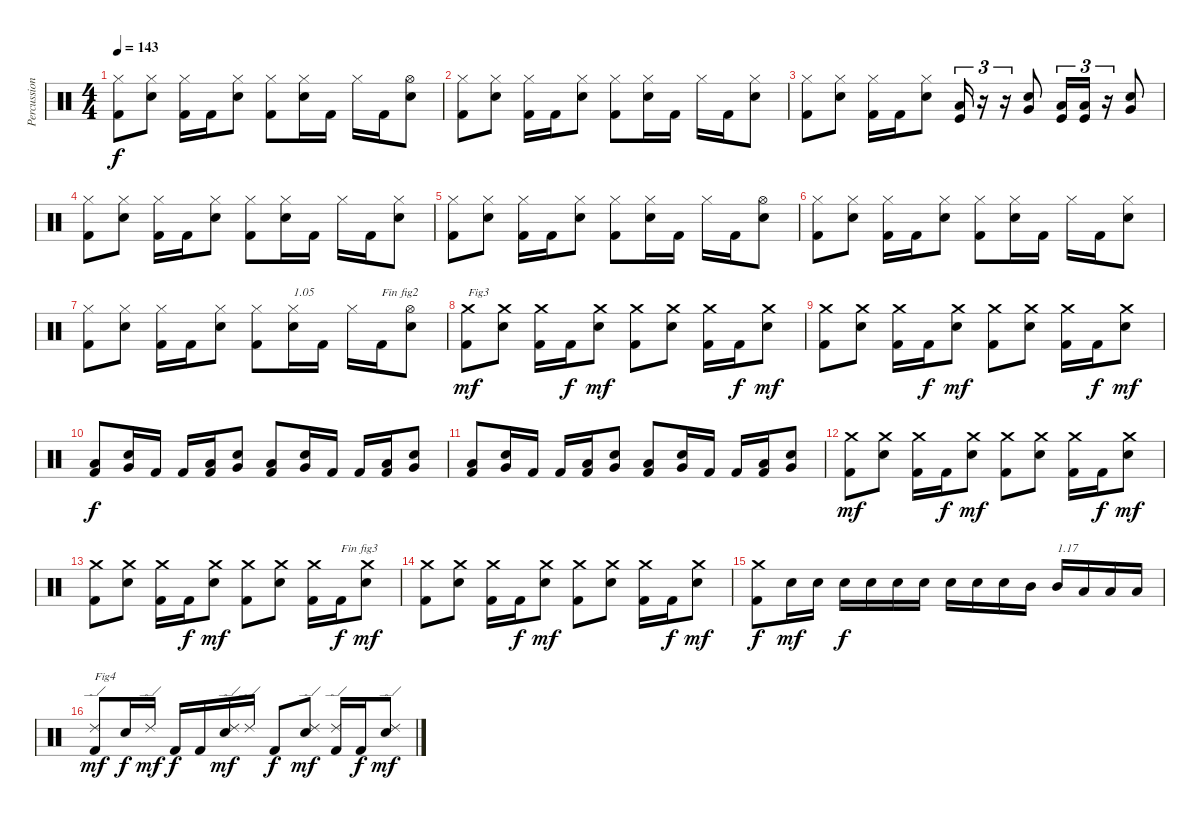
\track ("Percussions" "Percussion") {instrument percussion}
\staff {score}
\articulation defaults
\ts (4 4)
\tempo 143
\clef neutral
\ks c
("Kick (hit) 2" "Hi-Hat (closed)").8{dy f} ("Electric Snare (hit)" "Hi-Hat (closed)").8 ("Kick (hit) 2" "Hi-Hat (closed)").16 "Kick (hit) 2".16 ("Electric Snare (hit)" "Hi-Hat (closed)").8 ("Kick (hit) 2" "Hi-Hat (closed)").8 ("Electric Snare (hit)" "Hi-Hat (closed)").16 "Kick (hit) 2".16 "Hi-Hat (closed)".16 "Kick (hit) 2".16 ("Electric Snare (hit)" "Hi-Hat (open)").8 |
("Kick (hit) 2" "Hi-Hat (closed)").8 ("Electric Snare (hit)" "Hi-Hat (closed)").8 ("Kick (hit) 2" "Hi-Hat (closed)").16 "Kick (hit) 2".16 ("Electric Snare (hit)" "Hi-Hat (closed)").8 ("Kick (hit) 2" "Hi-Hat (closed)").8 ("Electric Snare (hit)" "Hi-Hat (closed)").16 "Kick (hit) 2".16 "Hi-Hat (closed)".16 "Kick (hit) 2".16 ("Electric Snare (hit)" "Hi-Hat (closed)").8 |
("Kick (hit) 2" "Hi-Hat (closed)").8 ("Electric Snare (hit)" "Hi-Hat (closed)").8 ("Kick (hit) 2" "Hi-Hat (closed)").16 "Kick (hit) 2".16 ("Electric Snare (hit)" "Hi-Hat (closed)").8 ("Kick (hit)" "Low Floor Tom (hit)").16{tu (3 2)} r.16{tu (3 2)} r.16{tu (3 2)} ("Electric Snare (hit)" "Very Low Tom (hit)").8 ("Kick (hit)" "Low Floor Tom (hit)").16{tu (3 2)} ("Kick (hit)" "Low Floor Tom (hit)").16{tu (3 2)} r.16{tu (3 2)} ("Electric Snare (hit)" "Very Low Tom (hit)").8 |
("Kick (hit) 2" "Hi-Hat (closed)").8 ("Electric Snare (hit)" "Hi-Hat (closed)").8 ("Kick (hit) 2" "Hi-Hat (closed)").16 "Kick (hit) 2".16 ("Electric Snare (hit)" "Hi-Hat (closed)").8 ("Kick (hit) 2" "Hi-Hat (closed)").8 ("Electric Snare (hit)" "Hi-Hat (closed)").16 "Kick (hit) 2".16 "Hi-Hat (closed)".16 "Kick (hit) 2".16 ("Electric Snare (hit)" "Hi-Hat (closed)").8 |
("Kick (hit) 2" "Hi-Hat (closed)").8 ("Electric Snare (hit)" "Hi-Hat (closed)").8 ("Kick (hit) 2" "Hi-Hat (closed)").16 "Kick (hit) 2".16 ("Electric Snare (hit)" "Hi-Hat (closed)").8 ("Kick (hit) 2" "Hi-Hat (closed)").8 ("Electric Snare (hit)" "Hi-Hat (closed)").16 "Kick (hit) 2".16 "Hi-Hat (closed)".16 "Kick (hit) 2".16 ("Electric Snare (hit)" "Hi-Hat (open)").8 |
("Kick (hit) 2" "Hi-Hat (closed)").8 ("Electric Snare (hit)" "Hi-Hat (closed)").8 ("Kick (hit) 2" "Hi-Hat (closed)").16 "Kick (hit) 2".16 ("Electric Snare (hit)" "Hi-Hat (closed)").8 ("Kick (hit) 2" "Hi-Hat (closed)").8 ("Electric Snare (hit)" "Hi-Hat (closed)").16 "Kick (hit) 2".16 "Hi-Hat (closed)".16 "Kick (hit) 2".16 ("Electric Snare (hit)" "Hi-Hat (closed)").8 |
("Kick (hit) 2" "Hi-Hat (closed)").8 ("Electric Snare (hit)" "Hi-Hat (closed)").8 ("Kick (hit) 2" "Hi-Hat (closed)").16 "Kick (hit) 2".16 ("Electric Snare (hit)" "Hi-Hat (closed)").8 ("Kick (hit) 2" "Hi-Hat (closed)").8 ("Electric Snare (hit)" "Hi-Hat (closed)").16{txt "1.05"} "Kick (hit) 2".16 "Hi-Hat (closed)".16 "Kick (hit) 2".16{txt "Fin fig2"} ("Electric Snare (hit)" "Hi-Hat (open)").8 |
("Kick (hit) 2" "Crash medium (hit)").8{txt "Fig3" dy mf} ("Electric Snare (hit)" "Crash medium (hit)").8 ("Kick (hit) 2" "Crash medium (hit)").16 "Kick (hit) 2".16{dy f} ("Electric Snare (hit)" "Crash medium (hit)").8{dy mf} ("Kick (hit) 2" "Crash medium (hit)").8 ("Electric Snare (hit)" "Crash medium (hit)").8 ("Kick (hit) 2" "Crash medium (hit)").16 "Kick (hit) 2".16{dy f} ("Electric Snare (hit)" "Crash medium (hit)").8{dy mf} |
("Kick (hit) 2" "Crash medium (hit)").8 ("Electric Snare (hit)" "Crash medium (hit)").8 ("Kick (hit) 2" "Crash medium (hit)").16 "Kick (hit) 2".16{dy f} ("Electric Snare (hit)" "Crash medium (hit)").8{dy mf} ("Kick (hit) 2" "Crash medium (hit)").8 ("Electric Snare (hit)" "Crash medium (hit)").8 ("Kick (hit) 2" "Crash medium (hit)").16 "Kick (hit) 2".16{dy f} ("Electric Snare (hit)" "Crash medium (hit)").8{dy mf} |
("Kick (hit) 2" "Low Floor Tom (hit)").8{dy f} ("Electric Snare (hit)" "Very Low Tom (hit)").16 "Kick (hit) 2".16 "Kick (hit) 2".16 ("Kick (hit) 2" "Low Floor Tom (hit)").16 ("Electric Snare (hit)" "Very Low Tom (hit)").8 ("Kick (hit) 2" "Low Floor Tom (hit)").8 ("Electric Snare (hit)" "Very Low Tom (hit)").16 "Kick (hit) 2".16 "Kick (hit) 2".16 ("Kick (hit) 2" "Low Floor Tom (hit)").16 ("Electric Snare (hit)" "Very Low Tom (hit)").8 |
("Kick (hit) 2" "Low Floor Tom (hit)").8 ("Electric Snare (hit)" "Very Low Tom (hit)").16 "Kick (hit) 2".16 "Kick (hit) 2".16 ("Kick (hit) 2" "Low Floor Tom (hit)").16 ("Electric Snare (hit)" "Very Low Tom (hit)").8 ("Kick (hit) 2" "Low Floor Tom (hit)").8 ("Electric Snare (hit)" "Very Low Tom (hit)").16 "Kick (hit) 2".16 "Kick (hit) 2".16 ("Kick (hit) 2" "Low Floor Tom (hit)").16 ("Electric Snare (hit)" "Very Low Tom (hit)").8 |
("Kick (hit) 2" "Crash medium (hit)").8{dy mf} ("Electric Snare (hit)" "Crash medium (hit)").8 ("Kick (hit) 2" "Crash medium (hit)").16 "Kick (hit) 2".16{dy f} ("Electric Snare (hit)" "Crash medium (hit)").8{dy mf} ("Kick (hit) 2" "Crash medium (hit)").8 ("Electric Snare (hit)" "Crash medium (hit)").8 ("Kick (hit) 2" "Crash medium (hit)").16 "Kick (hit) 2".16{dy f} ("Electric Snare (hit)" "Crash medium (hit)").8{dy mf} |
("Kick (hit) 2" "Crash medium (hit)").8 ("Electric Snare (hit)" "Crash medium (hit)").8 ("Kick (hit) 2" "Crash medium (hit)").16 "Kick (hit) 2".16{dy f} ("Electric Snare (hit)" "Crash medium (hit)").8{dy mf} ("Kick (hit) 2" "Crash medium (hit)").8 ("Electric Snare (hit)" "Crash medium (hit)").8 ("Kick (hit) 2" "Crash medium (hit)").16 "Kick (hit) 2".16{txt "Fin fig3" dy f} ("Electric Snare (hit)" "Crash medium (hit)").8{dy mf} |
("Kick (hit) 2" "Crash medium (hit)").8 ("Electric Snare (hit)" "Crash medium (hit)").8 ("Kick (hit) 2" "Crash medium (hit)").16 "Kick (hit) 2".16{dy f} ("Electric Snare (hit)" "Crash medium (hit)").8{dy mf} ("Kick (hit) 2" "Crash medium (hit)").8 ("Electric Snare (hit)" "Crash medium (hit)").8 ("Kick (hit) 2" "Crash medium (hit)").16 "Kick (hit) 2".16{dy f} ("Electric Snare (hit)" "Crash medium (hit)").8{dy mf} |
("Kick (hit) 2" "Crash medium (hit)").8{dy f} "Electric Snare (hit)".16{dy mf} "Electric Snare (hit)".16 "Electric Snare (hit)".16{dy f} "Electric Snare (hit)".16 "Electric Snare (hit)".16 "Electric Snare (hit)".16 "Electric Snare (hit)".16 "Electric Snare (hit)".16 "Electric Snare (hit)".16 "Mid Tom (hit)".16 "Mid Tom (hit)".16{txt "1.17"} "Low Tom (hit)".16 "Low Tom (hit)".16 "Low Tom (hit)".16 |
("Kick (hit) 2" "Ride (edge) 2").8{txt "Fig4" dy mf} "Electric Snare (hit)".16{dy f} "Ride (edge) 2".16{dy mf} "Kick (hit) 2".16{dy f} "Kick (hit) 2".16 ("Electric Snare (hit)" "Ride (edge) 2").16{dy mf} "Ride (edge) 2".16 "Kick (hit) 2".8{dy f} ("Electric Snare (hit)" "Ride (edge) 2").8{dy mf} ("Kick (hit) 2" "Ride (edge) 2").16 "Kick (hit) 2".16{dy f} ("Electric Snare (hit)" "Ride (edge) 2").8{dy mf}
